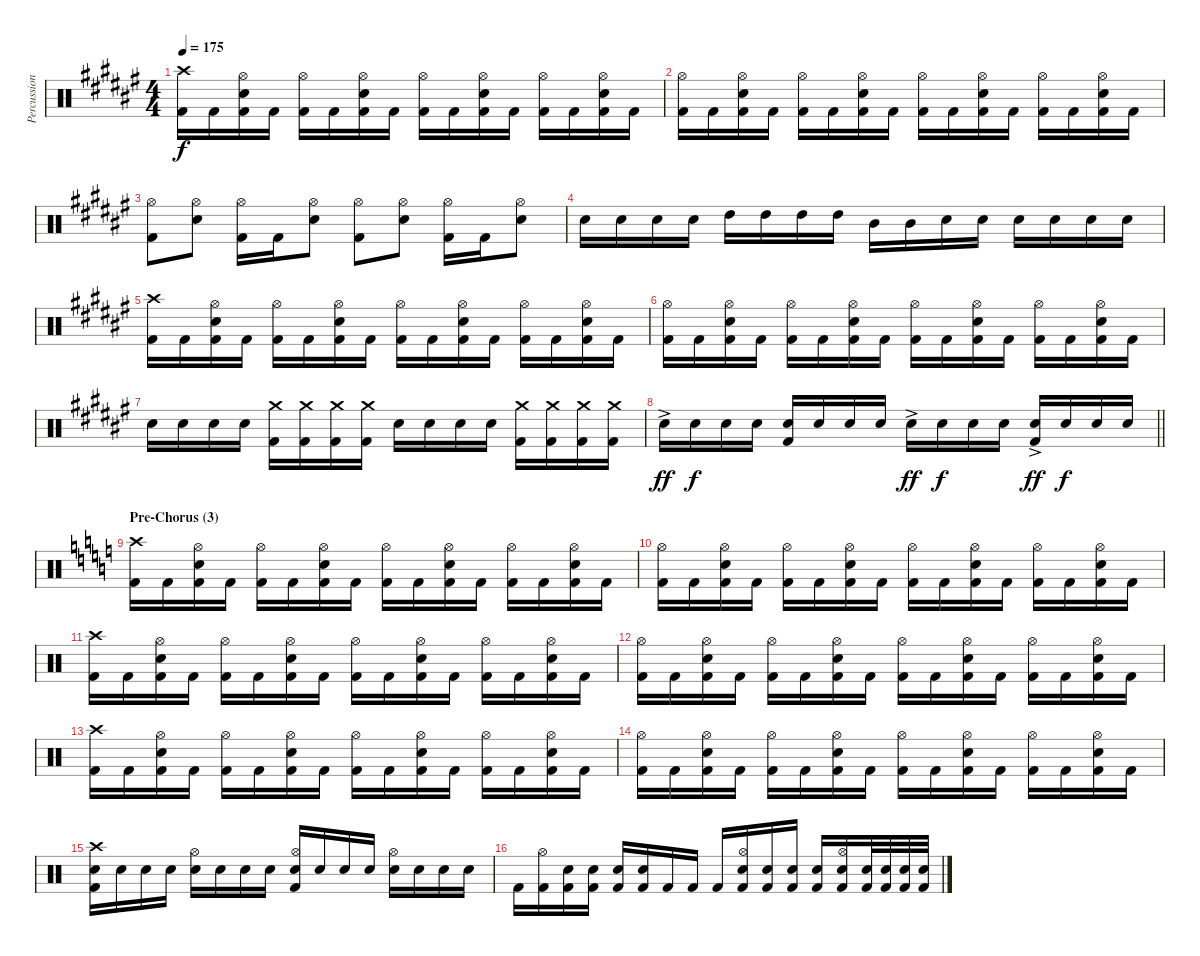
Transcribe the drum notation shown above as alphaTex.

\track ("Percussions" "Percussion") {instrument percussion}
\staff {score}
\articulation defaults
\ts (4 4)
\tempo 175
\clef neutral
\ks f#
("Crash high (hit)" "Kick (hit) 2").16{dy f} "Kick (hit) 2".16 ("Hi-Hat (open)" "Snare (hit) 2" "Kick (hit) 2").16 "Kick (hit) 2".16 ("Hi-Hat (open)" "Kick (hit) 2").16 "Kick (hit) 2".16 ("Hi-Hat (open)" "Snare (hit) 2" "Kick (hit) 2").16 "Kick (hit) 2".16 ("Hi-Hat (open)" "Kick (hit) 2").16 "Kick (hit) 2".16 ("Hi-Hat (open)" "Snare (hit) 2" "Kick (hit) 2").16 "Kick (hit) 2".16 ("Hi-Hat (open)" "Kick (hit) 2").16 "Kick (hit) 2".16 ("Hi-Hat (open)" "Snare (hit) 2" "Kick (hit) 2").16 "Kick (hit) 2".16 |
("Hi-Hat (open)" "Kick (hit) 2").16 "Kick (hit) 2".16 ("Hi-Hat (open)" "Snare (hit) 2" "Kick (hit) 2").16 "Kick (hit) 2".16 ("Hi-Hat (open)" "Kick (hit) 2").16 "Kick (hit) 2".16 ("Hi-Hat (open)" "Snare (hit) 2" "Kick (hit) 2").16 "Kick (hit) 2".16 ("Hi-Hat (open)" "Kick (hit) 2").16 "Kick (hit) 2".16 ("Hi-Hat (open)" "Snare (hit) 2" "Kick (hit) 2").16 "Kick (hit) 2".16 ("Hi-Hat (open)" "Kick (hit) 2").16 "Kick (hit) 2".16 ("Hi-Hat (open)" "Snare (hit) 2" "Kick (hit) 2").16 "Kick (hit) 2".16 |
("Hi-Hat (open)" "Kick (hit) 2").8 ("Hi-Hat (open)" "Snare (hit) 2").8 ("Hi-Hat (open)" "Kick (hit) 2").16 "Kick (hit) 2".16 ("Hi-Hat (open)" "Snare (hit) 2").8 ("Hi-Hat (open)" "Kick (hit) 2").8 ("Hi-Hat (open)" "Snare (hit) 2").8 ("Hi-Hat (open)" "Kick (hit) 2").16 "Kick (hit) 2".16 ("Hi-Hat (open)" "Snare (hit) 2").8 |
"Snare (hit) 2".16 "Snare (hit) 2".16 "Snare (hit) 2".16 "Snare (hit) 2".16 "High Tom (hit)".16 "High Tom (hit)".16 "High Tom (hit)".16 "High Tom (hit)".16 "Mid Tom (hit)".16 "Mid Tom (hit)".16 "Snare (hit) 2".16 "Snare (hit) 2".16 "Snare (hit) 2".16 "Snare (hit) 2".16 "Snare (hit) 2".16 "Snare (hit) 2".16 |
("Crash high (hit)" "Kick (hit) 2").16 "Kick (hit) 2".16 ("Hi-Hat (open)" "Snare (hit) 2" "Kick (hit) 2").16 "Kick (hit) 2".16 ("Hi-Hat (open)" "Kick (hit) 2").16 "Kick (hit) 2".16 ("Hi-Hat (open)" "Snare (hit) 2" "Kick (hit) 2").16 "Kick (hit) 2".16 ("Hi-Hat (open)" "Kick (hit) 2").16 "Kick (hit) 2".16 ("Hi-Hat (open)" "Snare (hit) 2" "Kick (hit) 2").16 "Kick (hit) 2".16 ("Hi-Hat (open)" "Kick (hit) 2").16 "Kick (hit) 2".16 ("Hi-Hat (open)" "Snare (hit) 2" "Kick (hit) 2").16 "Kick (hit) 2".16 |
("Hi-Hat (open)" "Kick (hit) 2").16 "Kick (hit) 2".16 ("Hi-Hat (open)" "Snare (hit) 2" "Kick (hit) 2").16 "Kick (hit) 2".16 ("Hi-Hat (open)" "Kick (hit) 2").16 "Kick (hit) 2".16 ("Hi-Hat (open)" "Snare (hit) 2" "Kick (hit) 2").16 "Kick (hit) 2".16 ("Hi-Hat (open)" "Kick (hit) 2").16 "Kick (hit) 2".16 ("Hi-Hat (open)" "Snare (hit) 2" "Kick (hit) 2").16 "Kick (hit) 2".16 ("Hi-Hat (open)" "Kick (hit) 2").16 "Kick (hit) 2".16 ("Hi-Hat (open)" "Snare (hit) 2" "Kick (hit) 2").16 "Kick (hit) 2".16 |
"Snare (hit) 2".16 "Snare (hit) 2".16 "Snare (hit) 2".16 "Snare (hit) 2".16 ("Crash medium (hit)" "Kick (hit) 2").16 ("Crash medium (hit)" "Kick (hit) 2").16 ("Crash medium (hit)" "Kick (hit) 2").16 ("Crash medium (hit)" "Kick (hit) 2").16 "Snare (hit) 2".16 "Snare (hit) 2".16 "Snare (hit) 2".16 "Snare (hit) 2".16 ("Crash medium (hit)" "Kick (hit) 2").16 ("Crash medium (hit)" "Kick (hit) 2").16 ("Crash medium (hit)" "Kick (hit) 2").16 ("Crash medium (hit)" "Kick (hit) 2").16 |
\barLineRight lightlight "Snare (hit) 2"{ac}.16{dy ff} "Snare (hit) 2".16{dy f} "Snare (hit) 2".16 "Snare (hit) 2".16
("Snare (hit) 2" "Kick (hit) 2").16 "Snare (hit) 2".16 "Snare (hit) 2".16 "Snare (hit) 2".16 "Snare (hit) 2"{ac}.16{dy ff} "Snare (hit) 2".16{dy f} "Snare (hit) 2".16 "Snare (hit) 2".16 ("Snare (hit) 2"{ac} "Kick (hit) 2").16{dy ff} "Snare (hit) 2".16{dy f} "Snare (hit) 2".16 "Snare (hit) 2".16 |
\section ("" "Pre-Chorus (3)")
\ks c
("Crash high (hit)" "Kick (hit) 2").16 "Kick (hit) 2".16 ("Hi-Hat (open)" "Snare (hit) 2" "Kick (hit) 2").16 "Kick (hit) 2".16 ("Hi-Hat (open)" "Kick (hit) 2").16 "Kick (hit) 2".16 ("Hi-Hat (open)" "Snare (hit) 2" "Kick (hit) 2").16 "Kick (hit) 2".16 ("Hi-Hat (open)" "Kick (hit) 2").16 "Kick (hit) 2".16 ("Hi-Hat (open)" "Snare (hit) 2" "Kick (hit) 2").16 "Kick (hit) 2".16 ("Hi-Hat (open)" "Kick (hit) 2").16 "Kick (hit) 2".16 ("Hi-Hat (open)" "Snare (hit) 2" "Kick (hit) 2").16 "Kick (hit) 2".16 |
("Hi-Hat (open)" "Kick (hit) 2").16 "Kick (hit) 2".16 ("Hi-Hat (open)" "Snare (hit) 2" "Kick (hit) 2").16 "Kick (hit) 2".16 ("Hi-Hat (open)" "Kick (hit) 2").16 "Kick (hit) 2".16 ("Hi-Hat (open)" "Snare (hit) 2" "Kick (hit) 2").16 "Kick (hit) 2".16 ("Hi-Hat (open)" "Kick (hit) 2").16 "Kick (hit) 2".16 ("Hi-Hat (open)" "Snare (hit) 2" "Kick (hit) 2").16 "Kick (hit) 2".16 ("Hi-Hat (open)" "Kick (hit) 2").16 "Kick (hit) 2".16 ("Hi-Hat (open)" "Snare (hit) 2" "Kick (hit) 2").16 "Kick (hit) 2".16 |
("Crash high (hit)" "Kick (hit) 2").16 "Kick (hit) 2".16 ("Hi-Hat (open)" "Snare (hit) 2" "Kick (hit) 2").16 "Kick (hit) 2".16 ("Hi-Hat (open)" "Kick (hit) 2").16 "Kick (hit) 2".16 ("Hi-Hat (open)" "Snare (hit) 2" "Kick (hit) 2").16 "Kick (hit) 2".16 ("Hi-Hat (open)" "Kick (hit) 2").16 "Kick (hit) 2".16 ("Hi-Hat (open)" "Snare (hit) 2" "Kick (hit) 2").16 "Kick (hit) 2".16 ("Hi-Hat (open)" "Kick (hit) 2").16 "Kick (hit) 2".16 ("Hi-Hat (open)" "Snare (hit) 2" "Kick (hit) 2").16 "Kick (hit) 2".16 |
("Hi-Hat (open)" "Kick (hit) 2").16 "Kick (hit) 2".16 ("Hi-Hat (open)" "Snare (hit) 2" "Kick (hit) 2").16 "Kick (hit) 2".16 ("Hi-Hat (open)" "Kick (hit) 2").16 "Kick (hit) 2".16 ("Hi-Hat (open)" "Snare (hit) 2" "Kick (hit) 2").16 "Kick (hit) 2".16 ("Hi-Hat (open)" "Kick (hit) 2").16 "Kick (hit) 2".16 ("Hi-Hat (open)" "Snare (hit) 2" "Kick (hit) 2").16 "Kick (hit) 2".16 ("Hi-Hat (open)" "Kick (hit) 2").16 "Kick (hit) 2".16 ("Hi-Hat (open)" "Snare (hit) 2" "Kick (hit) 2").16 "Kick (hit) 2".16 |
("Crash high (hit)" "Kick (hit) 2").16 "Kick (hit) 2".16 ("Hi-Hat (open)" "Snare (hit) 2" "Kick (hit) 2").16 "Kick (hit) 2".16 ("Hi-Hat (open)" "Kick (hit) 2").16 "Kick (hit) 2".16 ("Hi-Hat (open)" "Snare (hit) 2" "Kick (hit) 2").16 "Kick (hit) 2".16 ("Hi-Hat (open)" "Kick (hit) 2").16 "Kick (hit) 2".16 ("Hi-Hat (open)" "Snare (hit) 2" "Kick (hit) 2").16 "Kick (hit) 2".16 ("Hi-Hat (open)" "Kick (hit) 2").16 "Kick (hit) 2".16 ("Hi-Hat (open)" "Snare (hit) 2" "Kick (hit) 2").16 "Kick (hit) 2".16 |
("Hi-Hat (open)" "Kick (hit) 2").16 "Kick (hit) 2".16 ("Hi-Hat (open)" "Snare (hit) 2" "Kick (hit) 2").16 "Kick (hit) 2".16 ("Hi-Hat (open)" "Kick (hit) 2").16 "Kick (hit) 2".16 ("Hi-Hat (open)" "Snare (hit) 2" "Kick (hit) 2").16 "Kick (hit) 2".16 ("Hi-Hat (open)" "Kick (hit) 2").16 "Kick (hit) 2".16 ("Hi-Hat (open)" "Snare (hit) 2" "Kick (hit) 2").16 "Kick (hit) 2".16 ("Hi-Hat (open)" "Kick (hit) 2").16 "Kick (hit) 2".16 ("Hi-Hat (open)" "Snare (hit) 2" "Kick (hit) 2").16 "Kick (hit) 2".16 |
("Crash high (hit)" "Snare (hit) 2" "Kick (hit) 2").16 "Snare (hit) 2".16 "Snare (hit) 2".16 "Snare (hit) 2".16 ("Hi-Hat (open)" "Snare (hit) 2").16 "Snare (hit) 2".16 "Snare (hit) 2".16 "Snare (hit) 2".16 ("Hi-Hat (open)" "Snare (hit) 2" "Kick (hit) 2").16 "Snare (hit) 2".16 "Snare (hit) 2".16 "Snare (hit) 2".16 ("Hi-Hat (open)" "Snare (hit) 2").16 "Snare (hit) 2".16 "Snare (hit) 2".16 "Snare (hit) 2".16 |
"Kick (hit) 2".16 ("Hi-Hat (open)" "Kick (hit) 2").16 ("Snare (hit) 2" "Kick (hit) 2").16 ("Snare (hit) 2" "Kick (hit) 2").16 ("Snare (hit) 2" "Kick (hit) 2").16 ("Snare (hit) 2" "Kick (hit) 2").16 "Kick (hit) 2".16 "Kick (hit) 2".16 "Kick (hit) 2".16 ("Hi-Hat (open)" "Snare (hit) 2" "Kick (hit) 2").16 ("Snare (hit) 2" "Kick (hit) 2").16 ("Snare (hit) 2" "Kick (hit) 2").16 ("Snare (hit) 2" "Kick (hit) 2").16 ("Hi-Hat (open)" "Snare (hit) 2" "Kick (hit) 2").16 ("Snare (hit) 2" "Kick (hit) 2").32 ("Snare (hit) 2" "Kick (hit) 2").32 ("Snare (hit) 2" "Kick (hit) 2").32 ("Snare (hit) 2" "Kick (hit) 2").32
